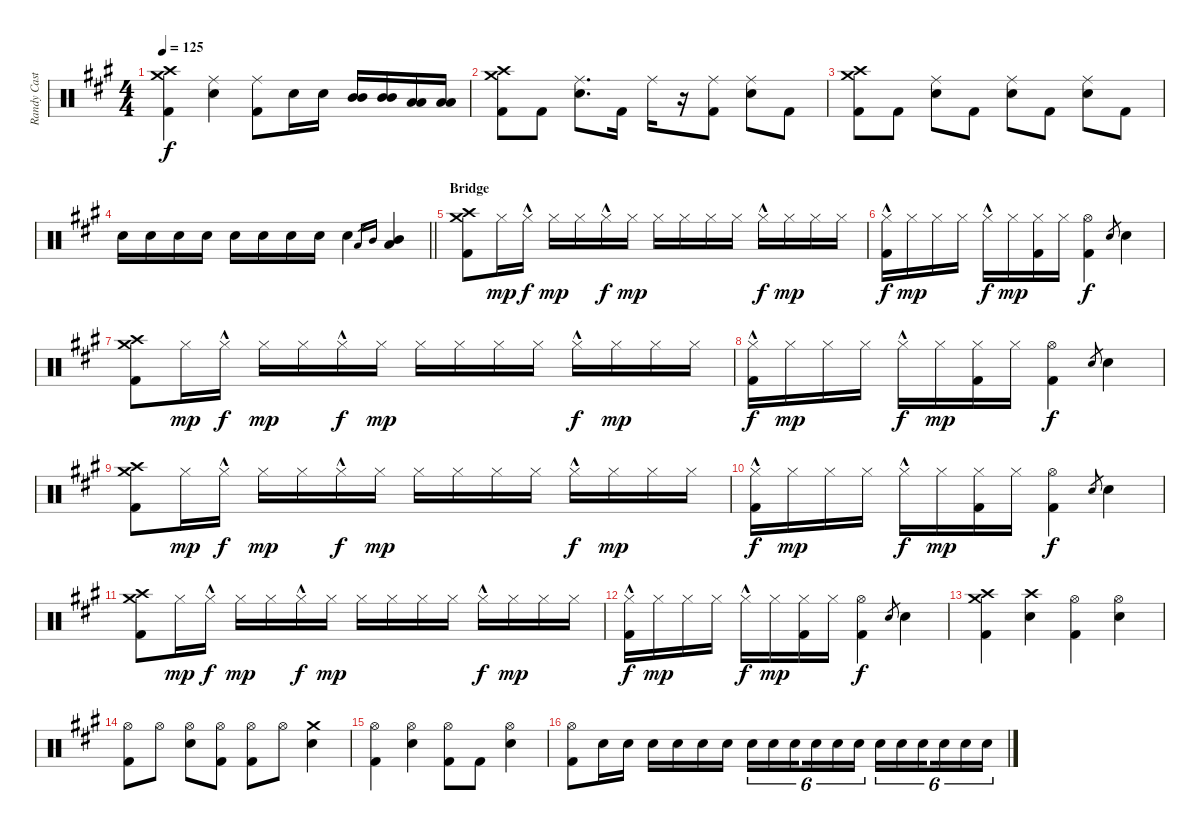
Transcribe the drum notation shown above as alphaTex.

\track ("Randy Castillo - Drums" "Randy Cast") {instrument percussion}
\staff {score}
\articulation defaults
\ts (4 4)
\tempo 125
\clef neutral
\ks a
("Crash medium (hit)" "Crash high (hit)" "Kick (hit) 2").4{dy f} ("Ride (middle)" "Snare (hit) 2").4 ("Ride (middle)" "Kick (hit) 2").8 "Snare (hit) 2".16 "Snare (hit) 2".16 ("Mid Tom (hit)" "Mid Tom (hit)").16 ("Mid Tom (hit)" "Mid Tom (hit)").16 ("Low Tom (hit)" "Low Tom (hit)").16 ("Low Tom (hit)" "Low Tom (hit)").16 |
("Crash medium (hit)" "Crash high (hit)" "Kick (hit) 2").8 "Kick (hit) 2".8 ("Ride (middle)" "Snare (hit) 2").8{d} "Kick (hit) 2".16 "Ride (middle)".16 r.16 ("Ride (middle)" "Kick (hit) 2").8 ("Ride (middle)" "Snare (hit) 2").8 "Kick (hit) 2".8 |
("Crash medium (hit)" "Crash high (hit)" "Kick (hit) 2").8 "Kick (hit) 2".8 ("Ride (middle)" "Snare (hit) 2").8 "Kick (hit) 2".8 ("Ride (middle)" "Snare (hit) 2").8 "Kick (hit) 2".8 ("Ride (middle)" "Snare (hit) 2").8 "Kick (hit) 2".8 |
\barLineRight lightlight "Snare (hit) 2".16 "Snare (hit) 2".16 "Snare (hit) 2".16 "Snare (hit) 2".16 "Snare (hit) 2".16 "Snare (hit) 2".16 "Snare (hit) 2".16 "Snare (hit) 2".16 "Snare (hit) 2".4 "Low Tom (hit)".16{gr} "Mid Tom (hit)".16{gr}
("Low Tom (hit)" "Mid Tom (hit)").4 |
\section ("" "Bridge")
("Crash medium (hit)" "Crash high (hit)" "Kick (hit) 2").8 "Hi-Hat (closed)".16{dy mp} "Hi-Hat (closed)"{hac}.16{dy f} "Hi-Hat (closed)".16{dy mp} "Hi-Hat (closed)".16 "Hi-Hat (closed)"{hac}.16{dy f} "Hi-Hat (closed)".16{dy mp} "Hi-Hat (closed)".16 "Hi-Hat (closed)".16 "Hi-Hat (closed)".16 "Hi-Hat (closed)".16 "Hi-Hat (closed)"{hac}.16{dy f} "Hi-Hat (closed)".16{dy mp} "Hi-Hat (closed)".16 "Hi-Hat (closed)".16 |
("Hi-Hat (closed)"{hac} "Kick (hit) 2").16{dy f} "Hi-Hat (closed)".16{dy mp} "Hi-Hat (closed)".16 "Hi-Hat (closed)".16 "Hi-Hat (closed)"{hac}.16{dy f} "Hi-Hat (closed)".16{dy mp} ("Hi-Hat (closed)" "Kick (hit) 2").16 "Hi-Hat (closed)".16 ("Hi-Hat (open)" "Kick (hit) 2").4{dy f} "Snare (hit) 2".8{gr} "Snare (hit) 2".4 |
("Crash medium (hit)" "Crash high (hit)" "Kick (hit) 2").8 "Hi-Hat (closed)".16{dy mp} "Hi-Hat (closed)"{hac}.16{dy f} "Hi-Hat (closed)".16{dy mp} "Hi-Hat (closed)".16 "Hi-Hat (closed)"{hac}.16{dy f} "Hi-Hat (closed)".16{dy mp} "Hi-Hat (closed)".16 "Hi-Hat (closed)".16 "Hi-Hat (closed)".16 "Hi-Hat (closed)".16 "Hi-Hat (closed)"{hac}.16{dy f} "Hi-Hat (closed)".16{dy mp} "Hi-Hat (closed)".16 "Hi-Hat (closed)".16 |
("Hi-Hat (closed)"{hac} "Kick (hit) 2").16{dy f} "Hi-Hat (closed)".16{dy mp} "Hi-Hat (closed)".16 "Hi-Hat (closed)".16 "Hi-Hat (closed)"{hac}.16{dy f} "Hi-Hat (closed)".16{dy mp} ("Hi-Hat (closed)" "Kick (hit) 2").16 "Hi-Hat (closed)".16 ("Hi-Hat (open)" "Kick (hit) 2").4{dy f} "Snare (hit) 2".8{gr} "Snare (hit) 2".4 |
("Crash medium (hit)" "Crash high (hit)" "Kick (hit) 2").8 "Hi-Hat (closed)".16{dy mp} "Hi-Hat (closed)"{hac}.16{dy f} "Hi-Hat (closed)".16{dy mp} "Hi-Hat (closed)".16 "Hi-Hat (closed)"{hac}.16{dy f} "Hi-Hat (closed)".16{dy mp} "Hi-Hat (closed)".16 "Hi-Hat (closed)".16 "Hi-Hat (closed)".16 "Hi-Hat (closed)".16 "Hi-Hat (closed)"{hac}.16{dy f} "Hi-Hat (closed)".16{dy mp} "Hi-Hat (closed)".16 "Hi-Hat (closed)".16 |
("Hi-Hat (closed)"{hac} "Kick (hit) 2").16{dy f} "Hi-Hat (closed)".16{dy mp} "Hi-Hat (closed)".16 "Hi-Hat (closed)".16 "Hi-Hat (closed)"{hac}.16{dy f} "Hi-Hat (closed)".16{dy mp} ("Hi-Hat (closed)" "Kick (hit) 2").16 "Hi-Hat (closed)".16 ("Hi-Hat (open)" "Kick (hit) 2").4{dy f} "Snare (hit) 2".8{gr} "Snare (hit) 2".4 |
("Crash medium (hit)" "Crash high (hit)" "Kick (hit) 2").8 "Hi-Hat (closed)".16{dy mp} "Hi-Hat (closed)"{hac}.16{dy f} "Hi-Hat (closed)".16{dy mp} "Hi-Hat (closed)".16 "Hi-Hat (closed)"{hac}.16{dy f} "Hi-Hat (closed)".16{dy mp} "Hi-Hat (closed)".16 "Hi-Hat (closed)".16 "Hi-Hat (closed)".16 "Hi-Hat (closed)".16 "Hi-Hat (closed)"{hac}.16{dy f} "Hi-Hat (closed)".16{dy mp} "Hi-Hat (closed)".16 "Hi-Hat (closed)".16 |
("Hi-Hat (closed)"{hac} "Kick (hit) 2").16{dy f} "Hi-Hat (closed)".16{dy mp} "Hi-Hat (closed)".16 "Hi-Hat (closed)".16 "Hi-Hat (closed)"{hac}.16{dy f} "Hi-Hat (closed)".16{dy mp} ("Hi-Hat (closed)" "Kick (hit) 2").16 "Hi-Hat (closed)".16 ("Hi-Hat (open)" "Kick (hit) 2").4{dy f} "Snare (hit) 2".8{gr} "Snare (hit) 2".4 |
("Crash medium (hit)" "Crash high (hit)" "Kick (hit) 2").4 ("Crash high (hit)" "Snare (hit) 2").4 ("Hi-Hat (open)" "Kick (hit) 2").4 ("Hi-Hat (open)" "Snare (hit) 2").4 |
("Hi-Hat (open)" "Kick (hit) 2").8 "Hi-Hat (open)".8 ("Hi-Hat (open)" "Snare (hit) 2").8 ("Hi-Hat (open)" "Kick (hit) 2").8 ("Hi-Hat (open)" "Kick (hit) 2").8 "Hi-Hat (open)".8 ("Crash medium (hit)" "Snare (hit) 2").4 |
("Hi-Hat (open)" "Kick (hit) 2").4 ("Hi-Hat (open)" "Snare (hit) 2").4 ("Hi-Hat (open)" "Kick (hit) 2").8 "Kick (hit) 2".8 ("Hi-Hat (open)" "Snare (hit) 2").4 |
("Hi-Hat (open)" "Kick (hit) 2").8 "Snare (hit) 2".16 "Snare (hit) 2".16 "Snare (hit) 2".16 "Snare (hit) 2".16 "Snare (hit) 2".16 "Snare (hit) 2".16 "Snare (hit) 2".16{tu (6 4)} "Snare (hit) 2".16{tu (6 4)} "Snare (hit) 2".16{tu (6 4) beam splitsecondary} "Snare (hit) 2".16{tu (6 4)} "Snare (hit) 2".16{tu (6 4)} "Snare (hit) 2".16{tu (6 4)} "Snare (hit) 2".16{tu (6 4)} "Snare (hit) 2".16{tu (6 4)} "Snare (hit) 2".16{tu (6 4) beam splitsecondary} "Snare (hit) 2".16{tu (6 4)} "Snare (hit) 2".16{tu (6 4)} "Snare (hit) 2".16{tu (6 4)}
